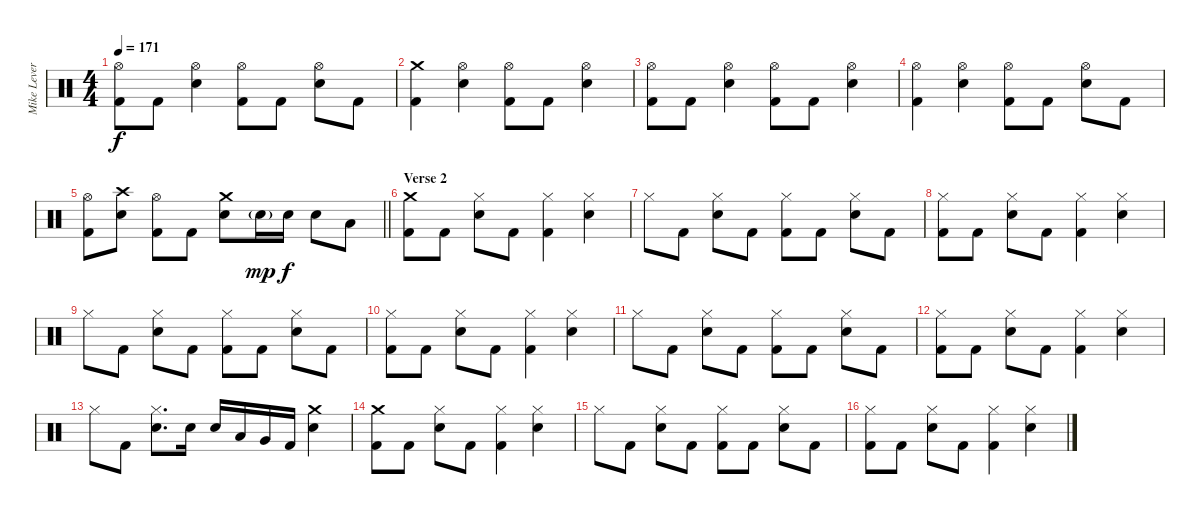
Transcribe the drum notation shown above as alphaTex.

\track ("Mike Leverence - Drums" "Mike Lever") {instrument percussion}
\staff {score}
\articulation defaults
\ts (4 4)
\tempo 171
\clef neutral
\ks c
("Hi-Hat (open)" "Kick (hit) 2").8{dy f} "Kick (hit) 2".8 ("Hi-Hat (open)" "Electric Snare (hit)").4 ("Hi-Hat (open)" "Kick (hit) 2").8 "Kick (hit) 2".8 ("Hi-Hat (open)" "Electric Snare (hit)").8 "Kick (hit) 2".8 |
("Crash medium (hit)" "Kick (hit) 2").4 ("Hi-Hat (open)" "Electric Snare (hit)").4 ("Hi-Hat (open)" "Kick (hit) 2").8 "Kick (hit) 2".8 ("Hi-Hat (open)" "Electric Snare (hit)").4 |
("Hi-Hat (open)" "Kick (hit) 2").8 "Kick (hit) 2".8 ("Hi-Hat (open)" "Electric Snare (hit)").4 ("Hi-Hat (open)" "Kick (hit) 2").8 "Kick (hit) 2".8 ("Hi-Hat (open)" "Electric Snare (hit)").4 |
("Hi-Hat (open)" "Kick (hit) 2").4 ("Hi-Hat (open)" "Electric Snare (hit)").4 ("Hi-Hat (open)" "Kick (hit) 2").8 "Kick (hit) 2".8 ("Hi-Hat (open)" "Electric Snare (hit)").8 "Kick (hit) 2".8 |
\barLineRight lightlight
("Hi-Hat (open)" "Kick (hit) 2").8 ("Crash high (hit)" "Electric Snare (hit)").8 ("Hi-Hat (open)" "Kick (hit) 2").8 "Kick (hit) 2".8 ("Crash medium (hit)" "Electric Snare (hit)").8 "Electric Snare (hit)"{g}.16{dy mp} "Electric Snare (hit)".16{dy f} "Electric Snare (hit)".8 "Low Tom (hit)".8 |
\section ("" "Verse 2")
("Crash medium (hit)" "Kick (hit) 2").8 "Kick (hit) 2".8 ("Hi-Hat (closed)" "Electric Snare (hit)").8 "Kick (hit) 2".8 ("Hi-Hat (closed)" "Kick (hit) 2").4 ("Hi-Hat (closed)" "Electric Snare (hit)").4 |
"Hi-Hat (closed)".8 "Kick (hit) 2".8 ("Hi-Hat (closed)" "Electric Snare (hit)").8 "Kick (hit) 2".8 ("Hi-Hat (closed)" "Kick (hit) 2").8 "Kick (hit) 2".8 ("Hi-Hat (closed)" "Electric Snare (hit)").8 "Kick (hit) 2".8 |
("Hi-Hat (closed)" "Kick (hit) 2").8 "Kick (hit) 2".8 ("Hi-Hat (closed)" "Electric Snare (hit)").8 "Kick (hit) 2".8 ("Hi-Hat (closed)" "Kick (hit) 2").4 ("Hi-Hat (closed)" "Electric Snare (hit)").4 |
"Hi-Hat (closed)".8 "Kick (hit) 2".8 ("Hi-Hat (closed)" "Electric Snare (hit)").8 "Kick (hit) 2".8 ("Hi-Hat (closed)" "Kick (hit) 2").8 "Kick (hit) 2".8 ("Hi-Hat (closed)" "Electric Snare (hit)").8 "Kick (hit) 2".8 |
("Hi-Hat (closed)" "Kick (hit) 2").8 "Kick (hit) 2".8 ("Hi-Hat (closed)" "Electric Snare (hit)").8 "Kick (hit) 2".8 ("Hi-Hat (closed)" "Kick (hit) 2").4 ("Hi-Hat (closed)" "Electric Snare (hit)").4 |
"Hi-Hat (closed)".8 "Kick (hit) 2".8 ("Hi-Hat (closed)" "Electric Snare (hit)").8 "Kick (hit) 2".8 ("Hi-Hat (closed)" "Kick (hit) 2").8 "Kick (hit) 2".8 ("Hi-Hat (closed)" "Electric Snare (hit)").8 "Kick (hit) 2".8 |
("Hi-Hat (closed)" "Kick (hit) 2").8 "Kick (hit) 2".8 ("Hi-Hat (closed)" "Electric Snare (hit)").8 "Kick (hit) 2".8 ("Hi-Hat (closed)" "Kick (hit) 2").4 ("Hi-Hat (closed)" "Electric Snare (hit)").4 |
"Hi-Hat (closed)".8 "Kick (hit) 2".8 ("Hi-Hat (closed)" "Electric Snare (hit)").8{d} "Electric Snare (hit)".16 "Electric Snare (hit)".16 "Low Tom (hit)".16 "Very Low Tom (hit)".16 "Kick (hit) 2".16 ("Crash medium (hit)" "Electric Snare (hit)").4 |
("Crash medium (hit)" "Kick (hit) 2").8 "Kick (hit) 2".8 ("Hi-Hat (closed)" "Electric Snare (hit)").8 "Kick (hit) 2".8 ("Hi-Hat (closed)" "Kick (hit) 2").4 ("Hi-Hat (closed)" "Electric Snare (hit)").4 |
"Hi-Hat (closed)".8 "Kick (hit) 2".8 ("Hi-Hat (closed)" "Electric Snare (hit)").8 "Kick (hit) 2".8 ("Hi-Hat (closed)" "Kick (hit) 2").8 "Kick (hit) 2".8 ("Hi-Hat (closed)" "Electric Snare (hit)").8 "Kick (hit) 2".8 |
("Hi-Hat (closed)" "Kick (hit) 2").8 "Kick (hit) 2".8 ("Hi-Hat (closed)" "Electric Snare (hit)").8 "Kick (hit) 2".8 ("Hi-Hat (closed)" "Kick (hit) 2").4 ("Hi-Hat (closed)" "Electric Snare (hit)").4
